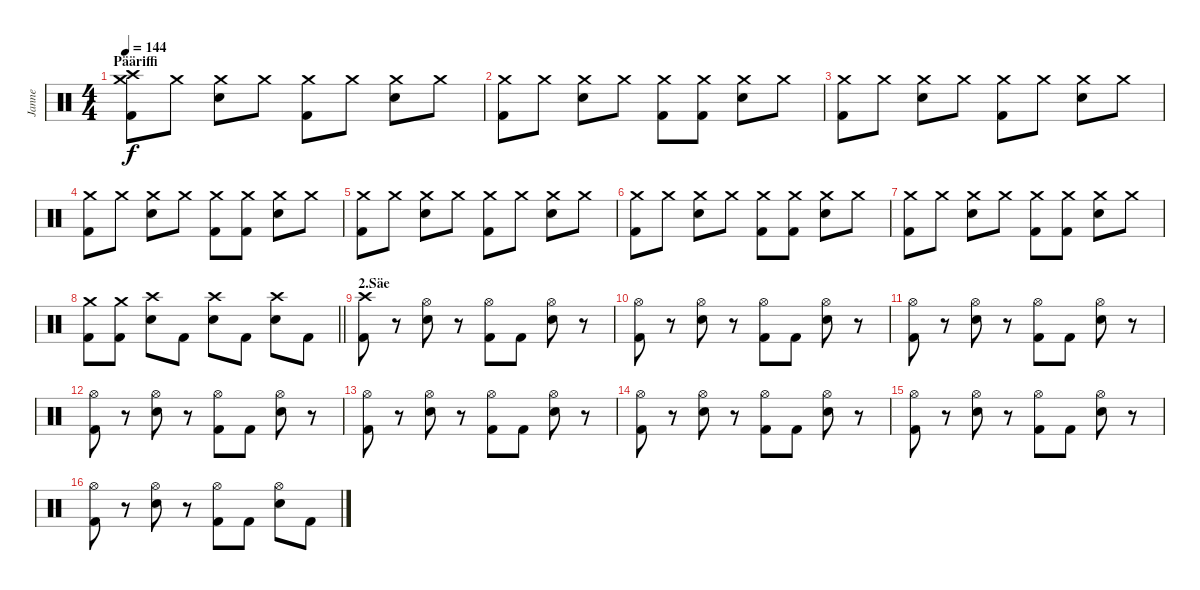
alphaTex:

\track ("Janne" "Janne") {instrument percussion}
\staff {score}
\articulation defaults
\ts (4 4)
\section ("" "Pääriffi")
\tempo 144
\clef neutral
\ks c
("Crash high (hit)" "Crash medium (hit)" "Kick (hit) 2").8{dy f} "Crash medium (hit)".8 ("Crash medium (hit)" "Electric Snare (hit)").8 "Crash medium (hit)".8 ("Crash medium (hit)" "Kick (hit) 2").8 "Crash medium (hit)".8 ("Crash medium (hit)" "Electric Snare (hit)").8 "Crash medium (hit)".8 |
("Crash medium (hit)" "Kick (hit) 2").8 "Crash medium (hit)".8 ("Crash medium (hit)" "Electric Snare (hit)").8 "Crash medium (hit)".8 ("Crash medium (hit)" "Kick (hit) 2").8 ("Crash medium (hit)" "Kick (hit) 2").8 ("Crash medium (hit)" "Electric Snare (hit)").8 "Crash medium (hit)".8 |
("Crash medium (hit)" "Kick (hit) 2").8 "Crash medium (hit)".8 ("Crash medium (hit)" "Electric Snare (hit)").8 "Crash medium (hit)".8 ("Crash medium (hit)" "Kick (hit) 2").8 "Crash medium (hit)".8 ("Crash medium (hit)" "Electric Snare (hit)").8 "Crash medium (hit)".8 |
("Crash medium (hit)" "Kick (hit) 2").8 "Crash medium (hit)".8 ("Crash medium (hit)" "Electric Snare (hit)").8 "Crash medium (hit)".8 ("Crash medium (hit)" "Kick (hit) 2").8 ("Crash medium (hit)" "Kick (hit) 2").8 ("Crash medium (hit)" "Electric Snare (hit)").8 "Crash medium (hit)".8 |
("Crash medium (hit)" "Kick (hit) 2").8 "Crash medium (hit)".8 ("Crash medium (hit)" "Electric Snare (hit)").8 "Crash medium (hit)".8 ("Crash medium (hit)" "Kick (hit) 2").8 "Crash medium (hit)".8 ("Crash medium (hit)" "Electric Snare (hit)").8 "Crash medium (hit)".8 |
("Crash medium (hit)" "Kick (hit) 2").8 "Crash medium (hit)".8 ("Crash medium (hit)" "Electric Snare (hit)").8 "Crash medium (hit)".8 ("Crash medium (hit)" "Kick (hit) 2").8 ("Crash medium (hit)" "Kick (hit) 2").8 ("Crash medium (hit)" "Electric Snare (hit)").8 "Crash medium (hit)".8 |
("Crash medium (hit)" "Kick (hit) 2").8 "Crash medium (hit)".8 ("Crash medium (hit)" "Electric Snare (hit)").8 "Crash medium (hit)".8 ("Crash medium (hit)" "Kick (hit) 2").8 ("Crash medium (hit)" "Kick (hit) 2").8 ("Crash medium (hit)" "Electric Snare (hit)").8 "Crash medium (hit)".8 |
\barLineRight lightlight
("Crash medium (hit)" "Kick (hit) 2").8 ("Crash medium (hit)" "Kick (hit) 2").8 ("Crash high (hit)" "Electric Snare (hit)").8 "Kick (hit) 2".8 ("Crash high (hit)" "Electric Snare (hit)").8 "Kick (hit) 2".8 ("Crash high (hit)" "Electric Snare (hit)").8 "Kick (hit) 2".8 |
\section ("" "2.Säe")
("Crash high (hit)" "Kick (hit) 2").8 r.8 ("Hi-Hat (open)" "Electric Snare (hit)").8 r.8 ("Hi-Hat (open)" "Kick (hit) 2").8 "Kick (hit) 2".8 ("Hi-Hat (open)" "Electric Snare (hit)").8 r.8 |
("Hi-Hat (open)" "Kick (hit) 2").8 r.8 ("Hi-Hat (open)" "Electric Snare (hit)").8 r.8 ("Hi-Hat (open)" "Kick (hit) 2").8 "Kick (hit) 2".8 ("Hi-Hat (open)" "Electric Snare (hit)").8 r.8 |
("Hi-Hat (open)" "Kick (hit) 2").8 r.8 ("Hi-Hat (open)" "Electric Snare (hit)").8 r.8 ("Hi-Hat (open)" "Kick (hit) 2").8 "Kick (hit) 2".8 ("Hi-Hat (open)" "Electric Snare (hit)").8 r.8 |
("Hi-Hat (open)" "Kick (hit) 2").8 r.8 ("Hi-Hat (open)" "Electric Snare (hit)").8 r.8 ("Hi-Hat (open)" "Kick (hit) 2").8 "Kick (hit) 2".8 ("Hi-Hat (open)" "Electric Snare (hit)").8 r.8 |
("Hi-Hat (open)" "Kick (hit) 2").8 r.8 ("Hi-Hat (open)" "Electric Snare (hit)").8 r.8 ("Hi-Hat (open)" "Kick (hit) 2").8 "Kick (hit) 2".8 ("Hi-Hat (open)" "Electric Snare (hit)").8 r.8 |
("Hi-Hat (open)" "Kick (hit) 2").8 r.8 ("Hi-Hat (open)" "Electric Snare (hit)").8 r.8 ("Hi-Hat (open)" "Kick (hit) 2").8 "Kick (hit) 2".8 ("Hi-Hat (open)" "Electric Snare (hit)").8 r.8 |
("Hi-Hat (open)" "Kick (hit) 2").8 r.8 ("Hi-Hat (open)" "Electric Snare (hit)").8 r.8 ("Hi-Hat (open)" "Kick (hit) 2").8 "Kick (hit) 2".8 ("Hi-Hat (open)" "Electric Snare (hit)").8 r.8 |
("Hi-Hat (open)" "Kick (hit) 2").8 r.8 ("Hi-Hat (open)" "Electric Snare (hit)").8 r.8 ("Hi-Hat (open)" "Kick (hit) 2").8 "Kick (hit) 2".8 ("Hi-Hat (open)" "Electric Snare (hit)").8 "Kick (hit) 2".8
